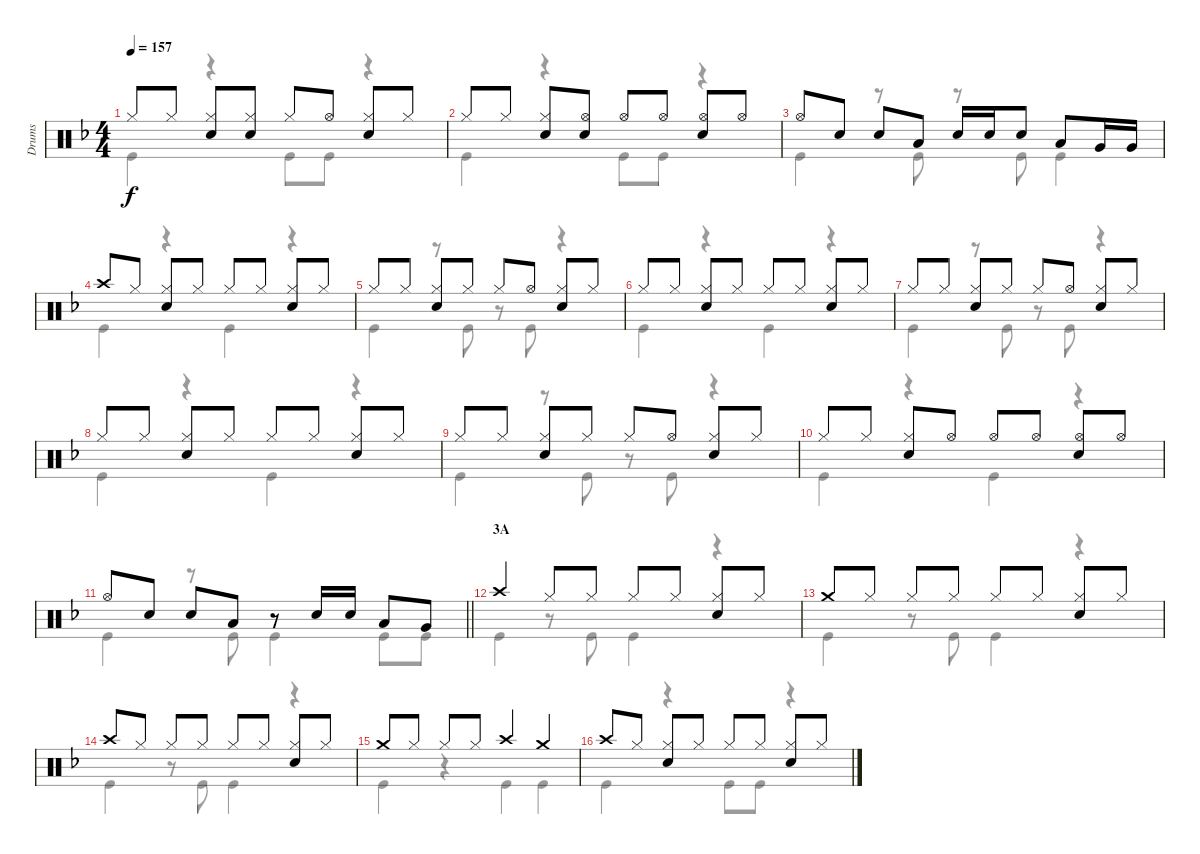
\track ("Drums" "Drums") {instrument percussion}
\staff {score}
\articulation defaults
\voice
\ts (4 4)
\tempo 157
\clef neutral
\ks f "Hi-Hat (closed)".8{dy f} "Hi-Hat (closed)".8
("Hi-Hat (closed)" "Snare (hit) 2").8 ("Hi-Hat (closed)" "Snare (hit) 2").8 "Hi-Hat (closed)".8 "Hi-Hat (open)".8 ("Hi-Hat (closed)" "Snare (hit) 2").8 "Hi-Hat (closed)".8 |
"Hi-Hat (closed)".8 "Hi-Hat (closed)".8 ("Hi-Hat (closed)" "Snare (hit) 2").8 ("Hi-Hat (open)" "Snare (hit) 2").8 "Hi-Hat (open)".8 "Hi-Hat (open)".8 ("Hi-Hat (open)" "Snare (hit) 2").8 "Hi-Hat (open)".8 |
"Hi-Hat (open)".8 "Snare (hit) 2".8 "Snare (hit) 2".8 "Low Tom (hit)".8 "Snare (hit) 2".16 "Snare (hit) 2".16 "Snare (hit) 2".8 "Low Tom (hit)".8 "Very Low Tom (hit)".16 "Very Low Tom (hit)".16 |
"Crash high (hit)".8 "Hi-Hat (closed)".8 ("Hi-Hat (closed)" "Snare (hit) 2").8 "Hi-Hat (closed)".8 "Hi-Hat (closed)".8 "Hi-Hat (closed)".8 ("Hi-Hat (closed)" "Snare (hit) 2").8 "Hi-Hat (closed)".8 |
"Hi-Hat (closed)".8 "Hi-Hat (closed)".8 ("Hi-Hat (closed)" "Snare (hit) 2").8 "Hi-Hat (closed)".8 "Hi-Hat (closed)".8 "Hi-Hat (open)".8 ("Hi-Hat (closed)" "Snare (hit) 2").8 "Hi-Hat (closed)".8 |
"Hi-Hat (closed)".8 "Hi-Hat (closed)".8 ("Hi-Hat (closed)" "Snare (hit) 2").8 "Hi-Hat (closed)".8 "Hi-Hat (closed)".8 "Hi-Hat (closed)".8 ("Hi-Hat (closed)" "Snare (hit) 2").8 "Hi-Hat (closed)".8 |
"Hi-Hat (closed)".8 "Hi-Hat (closed)".8 ("Hi-Hat (closed)" "Snare (hit) 2").8 "Hi-Hat (closed)".8 "Hi-Hat (closed)".8 "Hi-Hat (open)".8 ("Hi-Hat (closed)" "Snare (hit) 2").8 "Hi-Hat (closed)".8 |
"Hi-Hat (closed)".8 "Hi-Hat (closed)".8 ("Hi-Hat (closed)" "Snare (hit) 2").8 "Hi-Hat (closed)".8 "Hi-Hat (closed)".8 "Hi-Hat (closed)".8 ("Hi-Hat (closed)" "Snare (hit) 2").8 "Hi-Hat (closed)".8 |
"Hi-Hat (closed)".8 "Hi-Hat (closed)".8 ("Hi-Hat (closed)" "Snare (hit) 2").8 "Hi-Hat (closed)".8 "Hi-Hat (closed)".8 "Hi-Hat (open)".8 ("Hi-Hat (closed)" "Snare (hit) 2").8 "Hi-Hat (closed)".8 |
"Hi-Hat (closed)".8 "Hi-Hat (closed)".8 ("Hi-Hat (closed)" "Snare (hit) 2").8 "Hi-Hat (open)".8 "Hi-Hat (open)".8 "Hi-Hat (open)".8 ("Hi-Hat (open)" "Snare (hit) 2").8 "Hi-Hat (open)".8 |
\barLineRight lightlight "Hi-Hat (open)".8 "Snare (hit) 2".8 "Snare (hit) 2".8 "Low Tom (hit)".8
r.8 "Snare (hit) 2".16 "Snare (hit) 2".16 "Low Tom (hit)".8 "Very Low Tom (hit)".8 |
\section ("" "3A")
"Crash high (hit)".4 "Hi-Hat (closed)".8 "Hi-Hat (closed)".8 "Hi-Hat (closed)".8 "Hi-Hat (closed)".8 ("Hi-Hat (closed)" "Snare (hit) 2").8 "Hi-Hat (closed)".8 |
"Crash medium (hit)".8 "Hi-Hat (closed)".8 "Hi-Hat (closed)".8 "Hi-Hat (closed)".8 "Hi-Hat (closed)".8 "Hi-Hat (closed)".8 ("Hi-Hat (closed)" "Snare (hit) 2").8 "Hi-Hat (closed)".8 |
"Crash high (hit)".8 "Hi-Hat (closed)".8 "Hi-Hat (closed)".8 "Hi-Hat (closed)".8 "Hi-Hat (closed)".8 "Hi-Hat (closed)".8 ("Hi-Hat (closed)" "Snare (hit) 2").8 "Hi-Hat (closed)".8 |
"Crash medium (hit)".8 "Hi-Hat (closed)".8 "Hi-Hat (closed)".8 "Hi-Hat (closed)".8 "Crash high (hit)".4 "Crash medium (hit)".4 |
"Crash high (hit)".8 "Hi-Hat (closed)".8 ("Hi-Hat (closed)" "Snare (hit) 2").8 "Hi-Hat (closed)".8 "Hi-Hat (closed)".8 "Hi-Hat (closed)".8 ("Hi-Hat (closed)" "Snare (hit) 2").8 "Hi-Hat (closed)".8
\voice
\clef neutral
\ottava regular
\simile none
\ks f "Kick (hit)".4{dy f}
r.4 "Kick (hit)".8 "Kick (hit)".8 r.4 |
"Kick (hit)".4 r.4 "Kick (hit)".8 "Kick (hit)".8 r.4 |
"Kick (hit)".4 r.8 "Kick (hit)".8 r.8 "Kick (hit)".8 "Kick (hit)".4 |
"Kick (hit)".4 r.4 "Kick (hit)".4 r.4 |
"Kick (hit)".4 r.8 "Kick (hit)".8 r.8 "Kick (hit)".8 r.4 |
"Kick (hit)".4 r.4 "Kick (hit)".4 r.4 |
"Kick (hit)".4 r.8 "Kick (hit)".8 r.8 "Kick (hit)".8 r.4 |
"Kick (hit)".4 r.4 "Kick (hit)".4 r.4 |
"Kick (hit)".4 r.8 "Kick (hit)".8 r.8 "Kick (hit)".8 r.4 |
"Kick (hit)".4 r.4 "Kick (hit)".4 r.4 |
\barLineRight lightlight "Kick (hit)".4
r.8 "Kick (hit)".8 "Kick (hit)".4 "Kick (hit)".8 "Kick (hit)".8 |
"Kick (hit)".4 r.8 "Kick (hit)".8 "Kick (hit)".4 r.4 |
"Kick (hit)".4 r.8 "Kick (hit)".8 "Kick (hit)".4 r.4 |
"Kick (hit)".4 r.8 "Kick (hit)".8 "Kick (hit)".4 r.4 |
"Kick (hit)".4 r.4 "Kick (hit)".4 "Kick (hit)".4 |
"Kick (hit)".4 r.4 "Kick (hit)".8 "Kick (hit)".8 r.4
